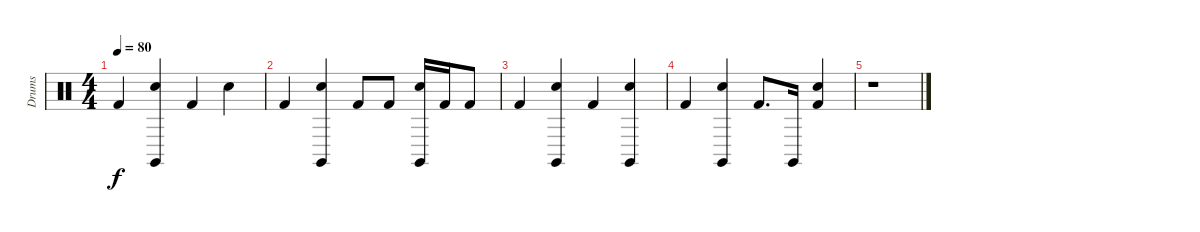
\track ("Drums" "Drums") {instrument percussion}
\staff {score}
\articulation defaults
\ts (4 4)
\tempo 80
\clef neutral
\ks c "Kick (hit) 2".4{dy f}
("Claves (hit)" "Snare (hit) 2").4 "Kick (hit) 2".4 "Snare (hit) 2".4 |
"Kick (hit) 2".4 ("Claves (hit)" "Snare (hit) 2").4 "Kick (hit) 2".8 "Kick (hit) 2".8 ("Claves (hit)" "Snare (hit) 2").16 "Kick (hit) 2".16 "Kick (hit) 2".8 |
"Kick (hit) 2".4 ("Claves (hit)" "Snare (hit) 2").4 "Kick (hit) 2".4 ("Claves (hit)" "Snare (hit) 2").4 |
"Kick (hit) 2".4 ("Claves (hit)" "Snare (hit) 2").4 "Kick (hit) 2".8{d} "Claves (hit)".16 ("Snare (hit) 2" "Kick (hit) 2").4 |
r.1
